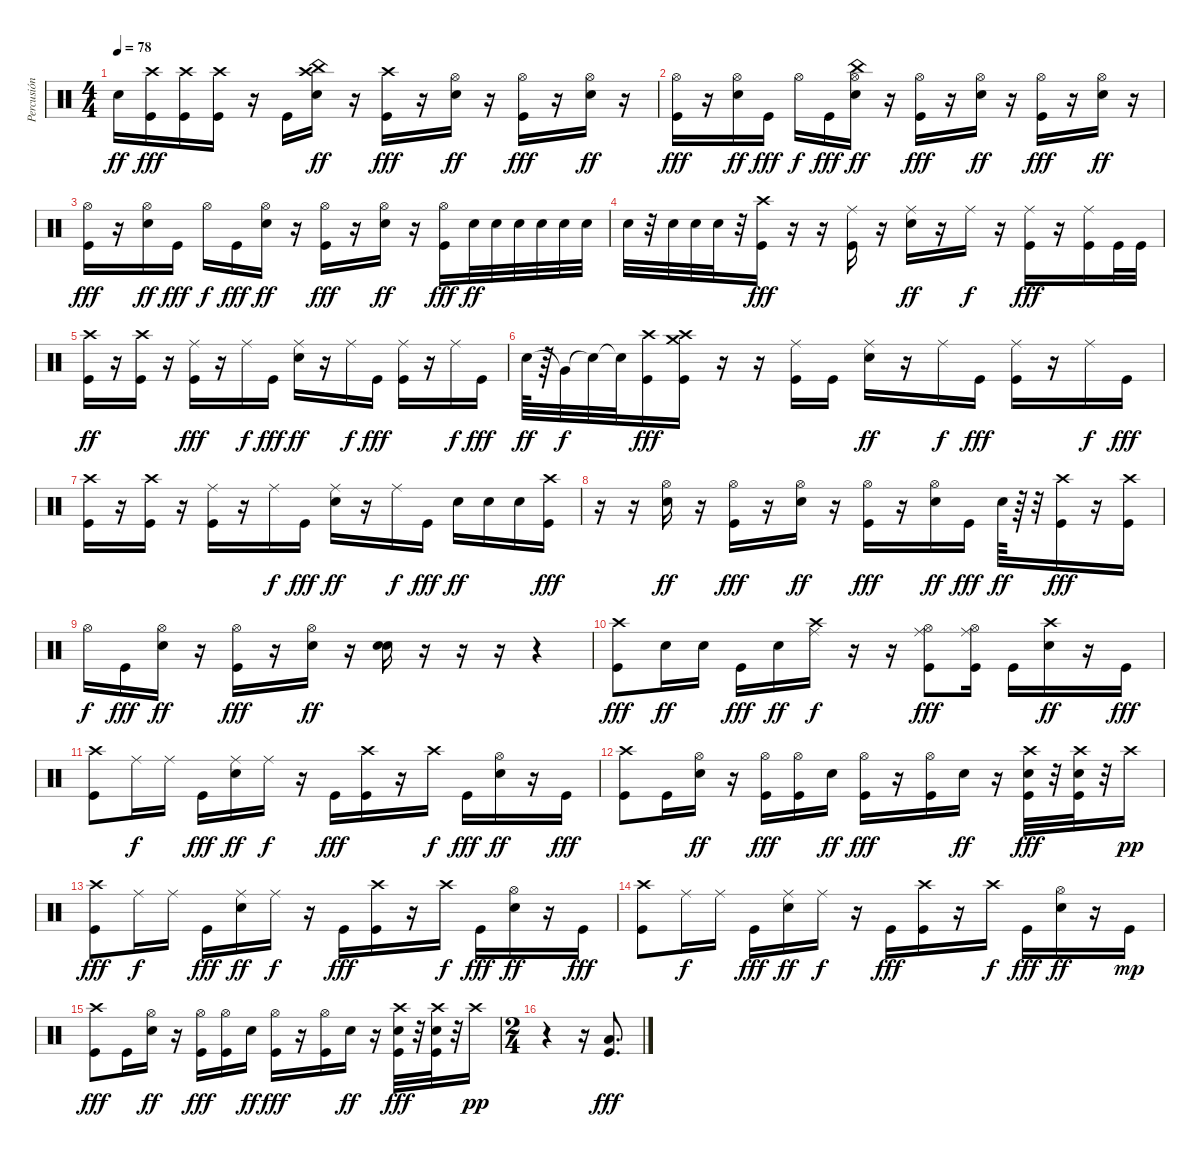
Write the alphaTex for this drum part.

\track ("Percusión" "Percusión") {instrument percussion}
\staff {score}
\articulation defaults
\ts (4 4)
\tempo 78
\clef neutral
\ks c "Snare (hit) 2".16{dy ff}
("Crash high (hit)" "Kick (hit)").16{dy fff} ("Crash high (hit)" "Kick (hit)").16 ("Crash high (hit)" "Kick (hit)").16 r.16 "Kick (hit)".16 ("Crash high (hit)" "China (hit)" "Snare (hit) 2").16{dy ff} r.16 ("Crash high (hit)" "Kick (hit)").16{dy fff} r.16 ("Hi-Hat (open)" "Snare (hit) 2").16{dy ff} r.16 ("Hi-Hat (open)" "Kick (hit)").16{dy fff} r.16 ("Hi-Hat (open)" "Snare (hit) 2").16{dy ff} r.16 |
("Hi-Hat (open)" "Kick (hit)").16{dy fff} r.16 ("Hi-Hat (open)" "Snare (hit) 2").16{dy ff} "Kick (hit)".16{dy fff} "Hi-Hat (open)".16{dy f} "Kick (hit)".16{dy fff} ("Hi-Hat (open)" "China (hit)" "Snare (hit) 2").16{dy ff} r.16 ("Hi-Hat (open)" "Kick (hit)").16{dy fff} r.16 ("Hi-Hat (open)" "Snare (hit) 2").16{dy ff} r.16 ("Hi-Hat (open)" "Kick (hit)").16{dy fff} r.16 ("Hi-Hat (open)" "Snare (hit) 2").16{dy ff} r.16 |
("Hi-Hat (open)" "Kick (hit)").16{dy fff} r.16 ("Hi-Hat (open)" "Snare (hit) 2").16{dy ff} "Kick (hit)".16{dy fff} "Hi-Hat (open)".16{dy f} "Kick (hit)".16{dy fff} ("Hi-Hat (open)" "Snare (hit) 2").16{dy ff} r.16 ("Hi-Hat (open)" "Kick (hit)").16{dy fff} r.16 ("Hi-Hat (open)" "Snare (hit) 2").16{dy ff} r.16 ("Hi-Hat (open)" "Kick (hit)").16{dy fff} "Snare (hit) 2".32{dy ff} "Snare (hit) 2".32 "Snare (hit) 2".32 "Snare (hit) 2".32 "Snare (hit) 2".32 "Snare (hit) 2".32 |
"Snare (hit) 2".32 r.32 "Snare (hit) 2".32 "Snare (hit) 2".32 "Snare (hit) 2".32 r.32 ("Crash high (hit)" "Kick (hit)").16{dy fff} r.16 r.16 ("Ride (middle)" "Kick (hit)").16 r.16 ("Ride (middle)" "Snare (hit) 2").16{dy ff} r.16 "Ride (middle)".16{dy f} r.16 ("Ride (middle)" "Kick (hit)").16{dy fff} r.16 ("Ride (middle)" "Kick (hit)").16 "Kick (hit)".32 "Kick (hit)".32 |
("Crash high (hit)" "Kick (hit)").16{dy ff} r.16 ("Crash high (hit)" "Kick (hit)").16 r.16 ("Ride (middle)" "Kick (hit)").16{dy fff} r.16 "Ride (middle)".16{dy f} "Kick (hit)".16{dy fff} ("Ride (middle)" "Snare (hit) 2").16{dy ff} r.16 "Ride (middle)".16{dy f} "Kick (hit)".16{dy fff} ("Ride (middle)" "Kick (hit)").16 r.16 "Ride (middle)".16{dy f} "Kick (hit)".16{dy fff} |
"Snare (hit) 2".64{dy ff} r.64 "Very Low Tom (hit)"{t}.32{dy f} "Snare (hit)"{t}.32 "Snare (hit)"{t}.32 ("Crash high (hit)" "Kick (hit)").16{dy fff} ("Crash medium (hit)" "Crash high (hit)" "Kick (hit)").16 r.16 r.16 ("Ride (middle)" "Kick (hit)").16 "Kick (hit)".16 ("Ride (middle)" "Snare (hit) 2").16{dy ff} r.16 "Ride (middle)".16{dy f} "Kick (hit)".16{dy fff} ("Ride (middle)" "Kick (hit)").16 r.16 "Ride (middle)".16{dy f} "Kick (hit)".16{dy fff} |
("Crash high (hit)" "Kick (hit)").16 r.16 ("Crash high (hit)" "Kick (hit)").16 r.16 ("Ride (middle)" "Kick (hit)").16 r.16 "Ride (middle)".16{dy f} "Kick (hit)".16{dy fff} ("Ride (middle)" "Snare (hit) 2").16{dy ff} r.16 "Ride (middle)".16{dy f} "Kick (hit)".16{dy fff} "Snare (hit) 2".16{dy ff} "Snare (hit) 2".16 "Snare (hit) 2".16 ("Crash high (hit)" "Kick (hit)").16{dy fff} |
r.16 r.16 ("Hi-Hat (open)" "Snare (hit) 2").16{dy ff} r.16 ("Hi-Hat (open)" "Kick (hit)").16{dy fff} r.16 ("Hi-Hat (open)" "Snare (hit) 2").16{dy ff} r.16 ("Hi-Hat (open)" "Kick (hit)").16{dy fff} r.16 ("Hi-Hat (open)" "Snare (hit) 2").16{dy ff} "Kick (hit)".16{dy fff} "Snare (hit) 2".64{dy ff} r.64 r.32 ("Crash high (hit)" "Kick (hit)").16{dy fff} r.16 ("Crash high (hit)" "Kick (hit)").16 |
"Hi-Hat (open)".16{dy f} "Kick (hit)".16{dy fff} ("Hi-Hat (open)" "Snare (hit) 2").16{dy ff} r.16 ("Hi-Hat (open)" "Kick (hit)").16{dy fff} r.16 ("Hi-Hat (open)" "Snare (hit) 2").16{dy ff} r.16 ("Snare (hit) 2" "Snare (hit) 2").16 r.16 r.16 r.16 r.4 |
("Crash high (hit)" "Kick (hit)").8{dy fff} "Snare (hit) 2".16{dy ff} "Snare (hit) 2".16 "Kick (hit)".16{dy fff} "Snare (hit) 2".16{dy ff} ("Ride (middle)" "Crash high (hit)").16{dy f} r.16 r.16 ("Ride (middle)" "Hi-Hat (open)" "Kick (hit)").8{dy fff} ("Ride (middle)" "Hi-Hat (open)" "Kick (hit)").16 "Kick (hit)".16 ("Crash high (hit)" "Snare (hit) 2").16{dy ff} r.16 "Kick (hit)".16{dy fff} |
("Crash high (hit)" "Kick (hit)").8 "Ride (middle)".16{dy f} "Ride (middle)".16 "Kick (hit)".16{dy fff} ("Ride (middle)" "Snare (hit) 2").16{dy ff} "Ride (middle)".16{dy f} r.16 "Kick (hit)".16{dy fff} ("Crash high (hit)" "Kick (hit)").16 r.16 "Crash high (hit)".16{dy f} "Kick (hit)".16{dy fff} ("Hi-Hat (open)" "Snare (hit) 2").16{dy ff} r.16 "Kick (hit)".16{dy fff} |
("Crash high (hit)" "Kick (hit)").8 "Kick (hit)".16 ("Hi-Hat (open)" "Snare (hit) 2").16{dy ff} r.16 ("Hi-Hat (open)" "Kick (hit)").16{dy fff} ("Hi-Hat (open)" "Kick (hit)").16 "Snare (hit) 2".16{dy ff} ("Hi-Hat (open)" "Kick (hit)").16{dy fff} r.16 ("Hi-Hat (open)" "Kick (hit)").16 "Snare (hit) 2".16{dy ff} r.16 ("Crash high (hit)" "Snare (hit) 2" "Kick (hit)").32{dy fff} r.32 ("Crash high (hit)" "Snare (hit) 2" "Kick (hit)").32 r.32 "Crash high (hit)".16{dy pp} |
("Crash high (hit)" "Kick (hit)").8{dy fff} "Ride (middle)".16{dy f} "Ride (middle)".16 "Kick (hit)".16{dy fff} ("Ride (middle)" "Snare (hit) 2").16{dy ff} "Ride (middle)".16{dy f} r.16 "Kick (hit)".16{dy fff} ("Crash high (hit)" "Kick (hit)").16 r.16 "Crash high (hit)".16{dy f} "Kick (hit)".16{dy fff} ("Hi-Hat (open)" "Snare (hit) 2").16{dy ff} r.16 "Kick (hit)".16{dy fff} |
("Crash high (hit)" "Kick (hit)").8 "Ride (middle)".16{dy f} "Ride (middle)".16 "Kick (hit)".16{dy fff} ("Ride (middle)" "Snare (hit) 2").16{dy ff} "Ride (middle)".16{dy f} r.16 "Kick (hit)".16{dy fff} ("Crash high (hit)" "Kick (hit)").16 r.16 "Crash high (hit)".16{dy f} "Kick (hit)".16{dy fff} ("Hi-Hat (open)" "Snare (hit) 2").16{dy ff} r.16 "Kick (hit)".16{dy mp} |
("Crash high (hit)" "Kick (hit)").8{dy fff} "Kick (hit)".16 ("Hi-Hat (open)" "Snare (hit) 2").16{dy ff} r.16 ("Hi-Hat (open)" "Kick (hit)").16{dy fff} ("Hi-Hat (open)" "Kick (hit)").16 "Snare (hit) 2".16{dy ff} ("Hi-Hat (open)" "Kick (hit)").16{dy fff} r.16 ("Hi-Hat (open)" "Kick (hit)").16 "Snare (hit) 2".16{dy ff} r.16 ("Crash high (hit)" "Snare (hit) 2" "Kick (hit)").32{dy fff} r.32 ("Crash high (hit)" "Snare (hit) 2" "Kick (hit)").32 r.32 "Crash high (hit)".16{dy pp} |
\ts (2 4)
r.4 r.16 ("Low Tom (hit)" "Kick (hit)").8{d dy fff}
